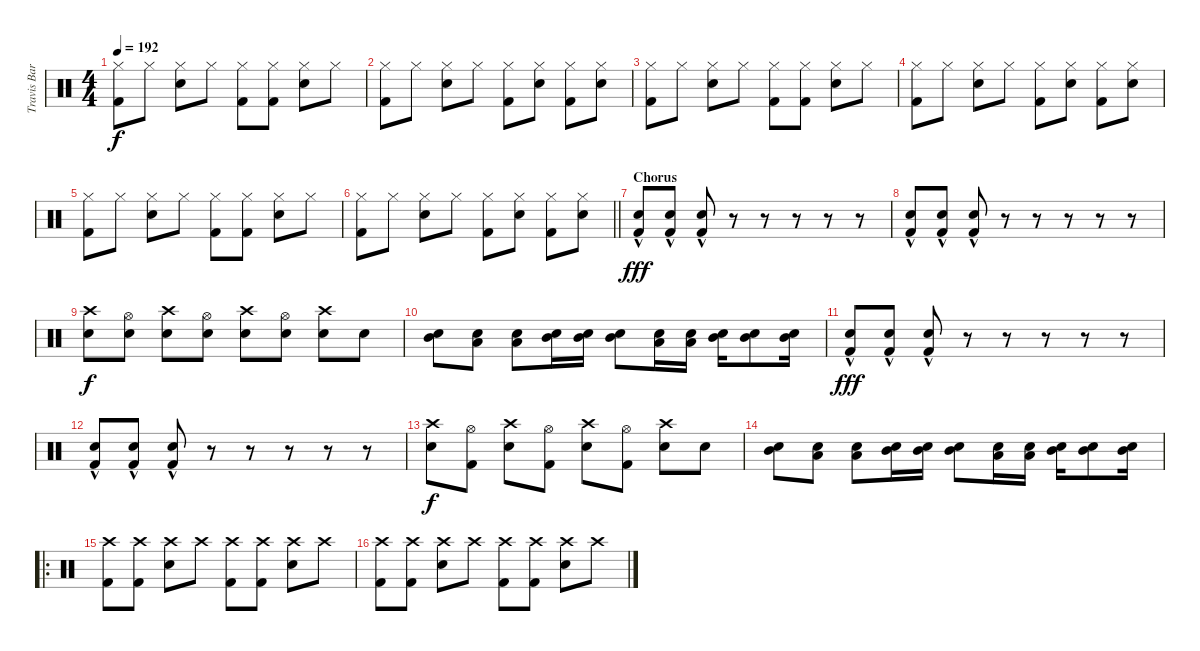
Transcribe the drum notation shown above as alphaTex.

\track ("Travis Barker" "Travis Bar") {instrument percussion}
\staff {score}
\articulation defaults
\ts (4 4)
\tempo 192
\clef neutral
\ks c
("Hi-Hat (closed)" "Kick (hit) 2").8{dy f} "Hi-Hat (closed)".8 ("Hi-Hat (closed)" "Snare (hit) 2").8 "Hi-Hat (closed)".8 ("Hi-Hat (closed)" "Kick (hit) 2").8 ("Hi-Hat (closed)" "Kick (hit) 2").8 ("Hi-Hat (closed)" "Snare (hit) 2").8 "Hi-Hat (closed)".8 |
("Hi-Hat (closed)" "Kick (hit) 2").8 "Hi-Hat (closed)".8 ("Hi-Hat (closed)" "Snare (hit) 2").8 "Hi-Hat (closed)".8 ("Hi-Hat (closed)" "Kick (hit) 2").8 ("Hi-Hat (closed)" "Snare (hit) 2").8 ("Hi-Hat (closed)" "Kick (hit) 2").8 ("Hi-Hat (closed)" "Snare (hit) 2").8 |
("Hi-Hat (closed)" "Kick (hit) 2").8 "Hi-Hat (closed)".8 ("Hi-Hat (closed)" "Snare (hit) 2").8 "Hi-Hat (closed)".8 ("Hi-Hat (closed)" "Kick (hit) 2").8 ("Hi-Hat (closed)" "Kick (hit) 2").8 ("Hi-Hat (closed)" "Snare (hit) 2").8 "Hi-Hat (closed)".8 |
("Hi-Hat (closed)" "Kick (hit) 2").8 "Hi-Hat (closed)".8 ("Hi-Hat (closed)" "Snare (hit) 2").8 "Hi-Hat (closed)".8 ("Hi-Hat (closed)" "Kick (hit) 2").8 ("Hi-Hat (closed)" "Snare (hit) 2").8 ("Hi-Hat (closed)" "Kick (hit) 2").8 ("Hi-Hat (closed)" "Snare (hit) 2").8 |
("Hi-Hat (closed)" "Kick (hit) 2").8 "Hi-Hat (closed)".8 ("Hi-Hat (closed)" "Snare (hit) 2").8 "Hi-Hat (closed)".8 ("Hi-Hat (closed)" "Kick (hit) 2").8 ("Hi-Hat (closed)" "Kick (hit) 2").8 ("Hi-Hat (closed)" "Snare (hit) 2").8 "Hi-Hat (closed)".8 |
\barLineRight lightlight
("Hi-Hat (closed)" "Kick (hit) 2").8 "Hi-Hat (closed)".8 ("Hi-Hat (closed)" "Snare (hit) 2").8 "Hi-Hat (closed)".8 ("Hi-Hat (closed)" "Kick (hit) 2").8 ("Hi-Hat (closed)" "Snare (hit) 2").8 ("Hi-Hat (closed)" "Kick (hit) 2").8 ("Hi-Hat (closed)" "Snare (hit) 2").8 |
\section ("" "Chorus")
("Kick (hit) 2"{hac} "Snare (hit) 2"{hac}).8{dy fff} ("Kick (hit) 2"{hac} "Snare (hit) 2"{hac}).8 ("Kick (hit) 2"{hac} "Snare (hit) 2"{hac}).8 r.8 r.8 r.8 r.8 r.8 |
("Kick (hit) 2"{hac} "Snare (hit) 2"{hac}).8 ("Kick (hit) 2"{hac} "Snare (hit) 2"{hac}).8 ("Kick (hit) 2"{hac} "Snare (hit) 2"{hac}).8 r.8 r.8 r.8 r.8 r.8 |
("Crash high (hit)" "Electric Snare (hit)").8{dy f} ("Hi-Hat (open)" "Snare (hit) 2").8 ("Crash high (hit)" "Electric Snare (hit)").8 ("Hi-Hat (open)" "Snare (hit) 2").8 ("Crash high (hit)" "Electric Snare (hit)").8 ("Hi-Hat (open)" "Snare (hit) 2").8 ("Crash high (hit)" "Electric Snare (hit)").8 "Electric Snare (hit)".8 |
("Mid Tom (hit)" "Snare (hit) 2").8 ("Low Floor Tom (hit)" "Snare (hit) 2").8 ("Low Floor Tom (hit)" "Snare (hit) 2").8 ("Mid Tom (hit)" "Snare (hit) 2").16 ("Mid Tom (hit)" "Snare (hit) 2").16 ("Mid Tom (hit)" "Snare (hit) 2").8 ("Low Floor Tom (hit)" "Snare (hit) 2").16 ("Low Floor Tom (hit)" "Snare (hit) 2").16 ("Mid Tom (hit)" "Snare (hit) 2").16 ("Mid Tom (hit)" "Snare (hit) 2").8 ("Mid Tom (hit)" "Snare (hit) 2").16 |
("Kick (hit) 2"{hac} "Snare (hit) 2"{hac}).8{dy fff} ("Kick (hit) 2"{hac} "Snare (hit) 2"{hac}).8 ("Kick (hit) 2"{hac} "Snare (hit) 2"{hac}).8 r.8 r.8 r.8 r.8 r.8 |
("Kick (hit) 2"{hac} "Snare (hit) 2"{hac}).8 ("Kick (hit) 2"{hac} "Snare (hit) 2"{hac}).8 ("Kick (hit) 2"{hac} "Snare (hit) 2"{hac}).8 r.8 r.8 r.8 r.8 r.8 |
("Crash high (hit)" "Electric Snare (hit)").8{dy f} ("Hi-Hat (open)" "Kick (hit) 2").8 ("Crash high (hit)" "Electric Snare (hit)").8 ("Hi-Hat (open)" "Kick (hit) 2").8 ("Crash high (hit)" "Electric Snare (hit)").8 ("Hi-Hat (open)" "Kick (hit) 2").8 ("Crash high (hit)" "Electric Snare (hit)").8 "Electric Snare (hit)".8 |
("Mid Tom (hit)" "Snare (hit) 2").8 ("Low Floor Tom (hit)" "Snare (hit) 2").8 ("Low Floor Tom (hit)" "Snare (hit) 2").8 ("Mid Tom (hit)" "Snare (hit) 2").16 ("Mid Tom (hit)" "Snare (hit) 2").16 ("Mid Tom (hit)" "Snare (hit) 2").8 ("Low Floor Tom (hit)" "Snare (hit) 2").16 ("Low Floor Tom (hit)" "Snare (hit) 2").16 ("Mid Tom (hit)" "Snare (hit) 2").16 ("Mid Tom (hit)" "Snare (hit) 2").8 ("Mid Tom (hit)" "Snare (hit) 2").16 |
\ro
("Kick (hit) 2" "Crash high (hit)").8 ("Kick (hit) 2" "Crash high (hit)").8 ("Electric Snare (hit)" "Crash high (hit)").8 "Crash high (hit)".8 ("Kick (hit) 2" "Crash high (hit)").8 ("Kick (hit) 2" "Crash high (hit)").8 ("Electric Snare (hit)" "Crash high (hit)").8 "Crash high (hit)".8 |
("Kick (hit) 2" "Crash high (hit)").8 ("Kick (hit) 2" "Crash high (hit)").8 ("Electric Snare (hit)" "Crash high (hit)").8 "Crash high (hit)".8 ("Kick (hit) 2" "Crash high (hit)").8 ("Kick (hit) 2" "Crash high (hit)").8 ("Electric Snare (hit)" "Crash high (hit)").8 "Crash high (hit)".8
